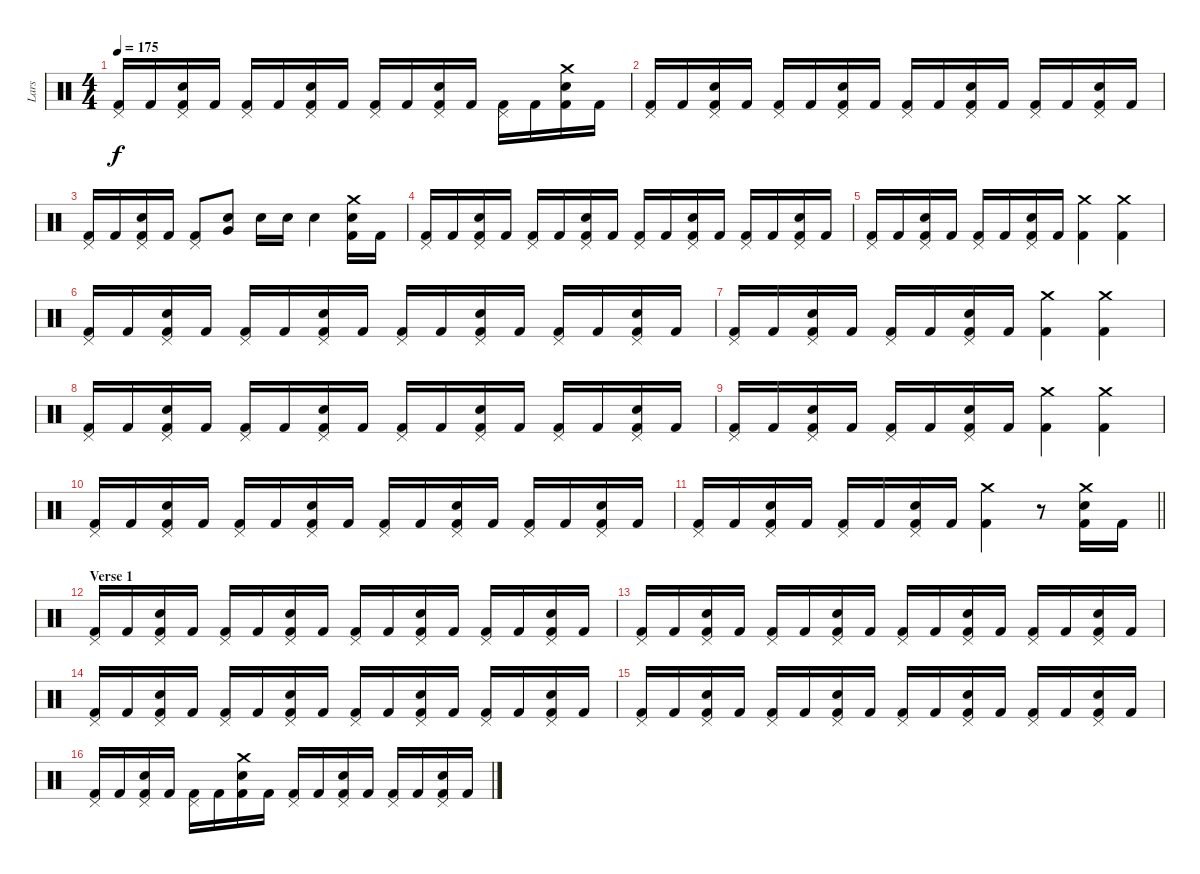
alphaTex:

\track ("Lars" "Lars") {instrument percussion}
\staff {score}
\articulation defaults
\ts (4 4)
\tempo 175
\clef neutral
\ks c
("Pedal Hi-Hat (hit)" "Kick (hit) 2").16{dy f} "Kick (hit) 2".16 ("Pedal Hi-Hat (hit)" "Electric Snare (hit)" "Kick (hit) 2").16 "Kick (hit) 2".16 ("Pedal Hi-Hat (hit)" "Kick (hit) 2").16 "Kick (hit) 2".16 ("Pedal Hi-Hat (hit)" "Electric Snare (hit)" "Kick (hit) 2").16 "Kick (hit) 2".16 ("Pedal Hi-Hat (hit)" "Kick (hit) 2").16 "Kick (hit) 2".16 ("Pedal Hi-Hat (hit)" "Electric Snare (hit)" "Kick (hit) 2").16 "Kick (hit) 2".16 ("Pedal Hi-Hat (hit)" "Kick (hit) 2").16 "Kick (hit) 2".16 ("Crash medium (hit)" "Electric Snare (hit)" "Kick (hit) 2").16 "Kick (hit) 2".16 |
("Pedal Hi-Hat (hit)" "Kick (hit) 2").16 "Kick (hit) 2".16 ("Pedal Hi-Hat (hit)" "Electric Snare (hit)" "Kick (hit) 2").16 "Kick (hit) 2".16 ("Pedal Hi-Hat (hit)" "Kick (hit) 2").16 "Kick (hit) 2".16 ("Pedal Hi-Hat (hit)" "Electric Snare (hit)" "Kick (hit) 2").16 "Kick (hit) 2".16 ("Pedal Hi-Hat (hit)" "Kick (hit) 2").16 "Kick (hit) 2".16 ("Pedal Hi-Hat (hit)" "Electric Snare (hit)" "Kick (hit) 2").16 "Kick (hit) 2".16 ("Pedal Hi-Hat (hit)" "Kick (hit) 2").16 "Kick (hit) 2".16 ("Pedal Hi-Hat (hit)" "Electric Snare (hit)" "Kick (hit) 2").16 "Kick (hit) 2".16 |
("Pedal Hi-Hat (hit)" "Kick (hit) 2").16 "Kick (hit) 2".16 ("Pedal Hi-Hat (hit)" "Electric Snare (hit)" "Kick (hit) 2").16 "Kick (hit) 2".16 ("Pedal Hi-Hat (hit)" "Kick (hit) 2").8 ("Electric Snare (hit)" "Very Low Tom (hit)").8 "Electric Snare (hit)".16 "Electric Snare (hit)".16 "Electric Snare (hit)".4 ("Crash medium (hit)" "Electric Snare (hit)" "Kick (hit) 2").16 "Kick (hit) 2".16 |
("Pedal Hi-Hat (hit)" "Kick (hit) 2").16 "Kick (hit) 2".16 ("Pedal Hi-Hat (hit)" "Electric Snare (hit)" "Kick (hit) 2").16 "Kick (hit) 2".16 ("Pedal Hi-Hat (hit)" "Kick (hit) 2").16 "Kick (hit) 2".16 ("Pedal Hi-Hat (hit)" "Electric Snare (hit)" "Kick (hit) 2").16 "Kick (hit) 2".16 ("Pedal Hi-Hat (hit)" "Kick (hit) 2").16 "Kick (hit) 2".16 ("Pedal Hi-Hat (hit)" "Electric Snare (hit)" "Kick (hit) 2").16 "Kick (hit) 2".16 ("Pedal Hi-Hat (hit)" "Kick (hit) 2").16 "Kick (hit) 2".16 ("Pedal Hi-Hat (hit)" "Electric Snare (hit)" "Kick (hit) 2").16 "Kick (hit) 2".16 |
("Pedal Hi-Hat (hit)" "Kick (hit) 2").16 "Kick (hit) 2".16 ("Pedal Hi-Hat (hit)" "Electric Snare (hit)" "Kick (hit) 2").16 "Kick (hit) 2".16 ("Pedal Hi-Hat (hit)" "Kick (hit) 2").16 "Kick (hit) 2".16 ("Pedal Hi-Hat (hit)" "Electric Snare (hit)" "Kick (hit) 2").16 "Kick (hit) 2".16 ("Crash medium (hit)" "Kick (hit) 2").4 ("Crash medium (hit)" "Kick (hit) 2").4 |
("Pedal Hi-Hat (hit)" "Kick (hit) 2").16 "Kick (hit) 2".16 ("Pedal Hi-Hat (hit)" "Electric Snare (hit)" "Kick (hit) 2").16 "Kick (hit) 2".16 ("Pedal Hi-Hat (hit)" "Kick (hit) 2").16 "Kick (hit) 2".16 ("Pedal Hi-Hat (hit)" "Electric Snare (hit)" "Kick (hit) 2").16 "Kick (hit) 2".16 ("Pedal Hi-Hat (hit)" "Kick (hit) 2").16 "Kick (hit) 2".16 ("Pedal Hi-Hat (hit)" "Electric Snare (hit)" "Kick (hit) 2").16 "Kick (hit) 2".16 ("Pedal Hi-Hat (hit)" "Kick (hit) 2").16 "Kick (hit) 2".16 ("Pedal Hi-Hat (hit)" "Electric Snare (hit)" "Kick (hit) 2").16 "Kick (hit) 2".16 |
("Pedal Hi-Hat (hit)" "Kick (hit) 2").16 "Kick (hit) 2".16 ("Pedal Hi-Hat (hit)" "Electric Snare (hit)" "Kick (hit) 2").16 "Kick (hit) 2".16 ("Pedal Hi-Hat (hit)" "Kick (hit) 2").16 "Kick (hit) 2".16 ("Pedal Hi-Hat (hit)" "Electric Snare (hit)" "Kick (hit) 2").16 "Kick (hit) 2".16 ("Crash medium (hit)" "Kick (hit) 2").4 ("Crash medium (hit)" "Kick (hit) 2").4 |
("Pedal Hi-Hat (hit)" "Kick (hit) 2").16 "Kick (hit) 2".16 ("Pedal Hi-Hat (hit)" "Electric Snare (hit)" "Kick (hit) 2").16 "Kick (hit) 2".16 ("Pedal Hi-Hat (hit)" "Kick (hit) 2").16 "Kick (hit) 2".16 ("Pedal Hi-Hat (hit)" "Electric Snare (hit)" "Kick (hit) 2").16 "Kick (hit) 2".16 ("Pedal Hi-Hat (hit)" "Kick (hit) 2").16 "Kick (hit) 2".16 ("Pedal Hi-Hat (hit)" "Electric Snare (hit)" "Kick (hit) 2").16 "Kick (hit) 2".16 ("Pedal Hi-Hat (hit)" "Kick (hit) 2").16 "Kick (hit) 2".16 ("Pedal Hi-Hat (hit)" "Electric Snare (hit)" "Kick (hit) 2").16 "Kick (hit) 2".16 |
("Pedal Hi-Hat (hit)" "Kick (hit) 2").16 "Kick (hit) 2".16 ("Pedal Hi-Hat (hit)" "Electric Snare (hit)" "Kick (hit) 2").16 "Kick (hit) 2".16 ("Pedal Hi-Hat (hit)" "Kick (hit) 2").16 "Kick (hit) 2".16 ("Pedal Hi-Hat (hit)" "Electric Snare (hit)" "Kick (hit) 2").16 "Kick (hit) 2".16 ("Crash medium (hit)" "Kick (hit) 2").4 ("Crash medium (hit)" "Kick (hit) 2").4 |
("Pedal Hi-Hat (hit)" "Kick (hit) 2").16 "Kick (hit) 2".16 ("Pedal Hi-Hat (hit)" "Electric Snare (hit)" "Kick (hit) 2").16 "Kick (hit) 2".16 ("Pedal Hi-Hat (hit)" "Kick (hit) 2").16 "Kick (hit) 2".16 ("Pedal Hi-Hat (hit)" "Electric Snare (hit)" "Kick (hit) 2").16 "Kick (hit) 2".16 ("Pedal Hi-Hat (hit)" "Kick (hit) 2").16 "Kick (hit) 2".16 ("Pedal Hi-Hat (hit)" "Electric Snare (hit)" "Kick (hit) 2").16 "Kick (hit) 2".16 ("Pedal Hi-Hat (hit)" "Kick (hit) 2").16 "Kick (hit) 2".16 ("Pedal Hi-Hat (hit)" "Electric Snare (hit)" "Kick (hit) 2").16 "Kick (hit) 2".16 |
\barLineRight lightlight
("Pedal Hi-Hat (hit)" "Kick (hit) 2").16 "Kick (hit) 2".16 ("Pedal Hi-Hat (hit)" "Electric Snare (hit)" "Kick (hit) 2").16 "Kick (hit) 2".16 ("Pedal Hi-Hat (hit)" "Kick (hit) 2").16 "Kick (hit) 2".16 ("Pedal Hi-Hat (hit)" "Electric Snare (hit)" "Kick (hit) 2").16 "Kick (hit) 2".16 ("Crash medium (hit)" "Kick (hit) 2").4 r.8 ("Crash medium (hit)" "Electric Snare (hit)" "Kick (hit) 2").16 "Kick (hit) 2".16 |
\section ("" "Verse 1")
("Pedal Hi-Hat (hit)" "Kick (hit) 2").16 "Kick (hit) 2".16 ("Pedal Hi-Hat (hit)" "Electric Snare (hit)" "Kick (hit) 2").16 "Kick (hit) 2".16 ("Pedal Hi-Hat (hit)" "Kick (hit) 2").16 "Kick (hit) 2".16 ("Pedal Hi-Hat (hit)" "Electric Snare (hit)" "Kick (hit) 2").16 "Kick (hit) 2".16 ("Pedal Hi-Hat (hit)" "Kick (hit) 2").16 "Kick (hit) 2".16 ("Pedal Hi-Hat (hit)" "Electric Snare (hit)" "Kick (hit) 2").16 "Kick (hit) 2".16 ("Pedal Hi-Hat (hit)" "Kick (hit) 2").16 "Kick (hit) 2".16 ("Pedal Hi-Hat (hit)" "Electric Snare (hit)" "Kick (hit) 2").16 "Kick (hit) 2".16 |
("Pedal Hi-Hat (hit)" "Kick (hit) 2").16 "Kick (hit) 2".16 ("Pedal Hi-Hat (hit)" "Electric Snare (hit)" "Kick (hit) 2").16 "Kick (hit) 2".16 ("Pedal Hi-Hat (hit)" "Kick (hit) 2").16 "Kick (hit) 2".16 ("Pedal Hi-Hat (hit)" "Electric Snare (hit)" "Kick (hit) 2").16 "Kick (hit) 2".16 ("Pedal Hi-Hat (hit)" "Kick (hit) 2").16 "Kick (hit) 2".16 ("Pedal Hi-Hat (hit)" "Electric Snare (hit)" "Kick (hit) 2").16 "Kick (hit) 2".16 ("Pedal Hi-Hat (hit)" "Kick (hit) 2").16 "Kick (hit) 2".16 ("Pedal Hi-Hat (hit)" "Electric Snare (hit)" "Kick (hit) 2").16 "Kick (hit) 2".16 |
("Pedal Hi-Hat (hit)" "Kick (hit) 2").16 "Kick (hit) 2".16 ("Pedal Hi-Hat (hit)" "Electric Snare (hit)" "Kick (hit) 2").16 "Kick (hit) 2".16 ("Pedal Hi-Hat (hit)" "Kick (hit) 2").16 "Kick (hit) 2".16 ("Pedal Hi-Hat (hit)" "Electric Snare (hit)" "Kick (hit) 2").16 "Kick (hit) 2".16 ("Pedal Hi-Hat (hit)" "Kick (hit) 2").16 "Kick (hit) 2".16 ("Pedal Hi-Hat (hit)" "Electric Snare (hit)" "Kick (hit) 2").16 "Kick (hit) 2".16 ("Pedal Hi-Hat (hit)" "Kick (hit) 2").16 "Kick (hit) 2".16 ("Pedal Hi-Hat (hit)" "Electric Snare (hit)" "Kick (hit) 2").16 "Kick (hit) 2".16 |
("Pedal Hi-Hat (hit)" "Kick (hit) 2").16 "Kick (hit) 2".16 ("Pedal Hi-Hat (hit)" "Electric Snare (hit)" "Kick (hit) 2").16 "Kick (hit) 2".16 ("Pedal Hi-Hat (hit)" "Kick (hit) 2").16 "Kick (hit) 2".16 ("Pedal Hi-Hat (hit)" "Electric Snare (hit)" "Kick (hit) 2").16 "Kick (hit) 2".16 ("Pedal Hi-Hat (hit)" "Kick (hit) 2").16 "Kick (hit) 2".16 ("Pedal Hi-Hat (hit)" "Electric Snare (hit)" "Kick (hit) 2").16 "Kick (hit) 2".16 ("Pedal Hi-Hat (hit)" "Kick (hit) 2").16 "Kick (hit) 2".16 ("Pedal Hi-Hat (hit)" "Electric Snare (hit)" "Kick (hit) 2").16 "Kick (hit) 2".16 |
("Pedal Hi-Hat (hit)" "Kick (hit) 2").16 "Kick (hit) 2".16 ("Pedal Hi-Hat (hit)" "Electric Snare (hit)" "Kick (hit) 2").16 "Kick (hit) 2".16 ("Pedal Hi-Hat (hit)" "Kick (hit) 2").16 "Kick (hit) 2".16 ("Crash medium (hit)" "Electric Snare (hit)" "Kick (hit) 2").16 "Kick (hit) 2".16 ("Pedal Hi-Hat (hit)" "Kick (hit) 2").16 "Kick (hit) 2".16 ("Pedal Hi-Hat (hit)" "Electric Snare (hit)" "Kick (hit) 2").16 "Kick (hit) 2".16 ("Pedal Hi-Hat (hit)" "Kick (hit) 2").16 "Kick (hit) 2".16 ("Pedal Hi-Hat (hit)" "Electric Snare (hit)" "Kick (hit) 2").16 "Kick (hit) 2".16
